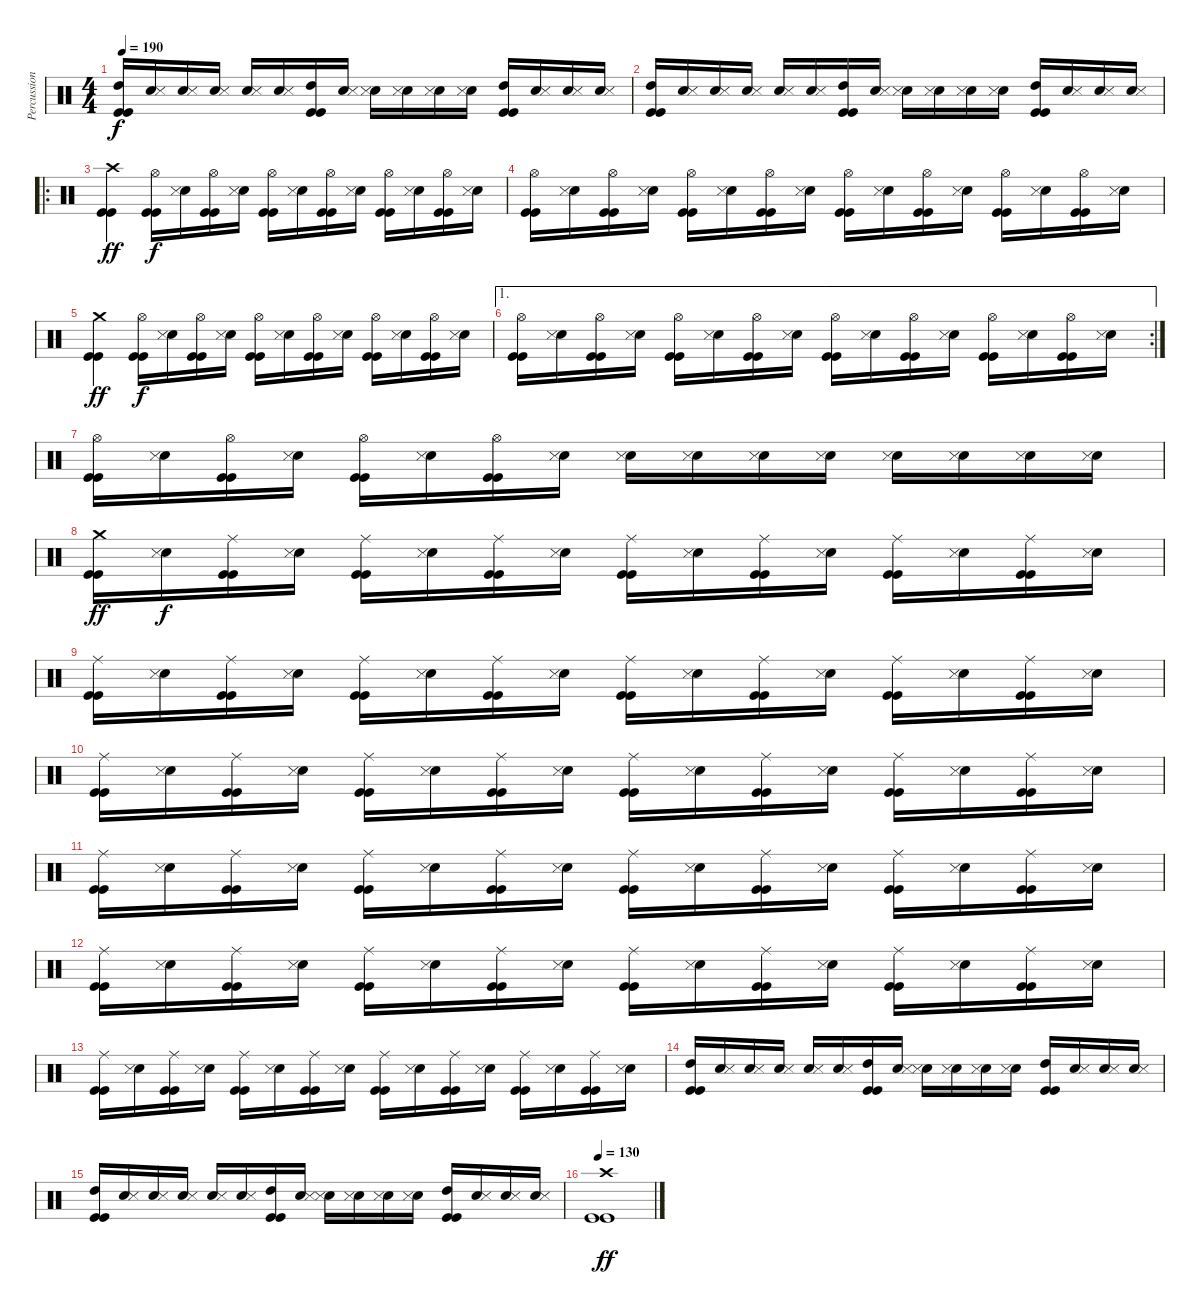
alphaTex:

\track ("Percussion" "Percussion") {instrument percussion}
\staff {score}
\articulation defaults
\ts (4 4)
\tempo 190
\clef neutral
\ks c
("High Tom (hit)" "Kick (hit)" "Kick (hit)").16{dy f} ("Snare (hit) 2" "Snare (side stick) 3").16 ("Snare (hit) 2" "Snare (side stick) 3").16 ("Snare (hit) 2" "Snare (side stick) 3").16 ("Snare (hit) 2" "Snare (side stick) 3").16 ("Snare (hit) 2" "Snare (side stick) 3").16 ("High Tom (hit)" "Kick (hit)" "Kick (hit)").16 ("Snare (hit) 2" "Snare (side stick) 3").16 ("Snare (hit) 2" "Snare (side stick) 3").16 ("Snare (hit) 2" "Snare (side stick) 3").16 ("Snare (hit) 2" "Snare (side stick) 3").16 ("Snare (hit) 2" "Snare (side stick) 3").16 ("High Tom (hit)" "Kick (hit)" "Kick (hit)").16 ("Snare (hit) 2" "Snare (side stick) 3").16 ("Snare (hit) 2" "Snare (side stick) 3").16 ("Snare (hit) 2" "Snare (side stick) 3").16 |
("High Tom (hit)" "Kick (hit)" "Kick (hit)").16 ("Snare (hit) 2" "Snare (side stick) 3").16 ("Snare (hit) 2" "Snare (side stick) 3").16 ("Snare (hit) 2" "Snare (side stick) 3").16 ("Snare (hit) 2" "Snare (side stick) 3").16 ("Snare (hit) 2" "Snare (side stick) 3").16 ("High Tom (hit)" "Kick (hit)" "Kick (hit)").16 ("Snare (hit) 2" "Snare (side stick) 3").16 ("Snare (hit) 2" "Snare (side stick) 3").16 ("Snare (hit) 2" "Snare (side stick) 3").16 ("Snare (hit) 2" "Snare (side stick) 3").16 ("Snare (hit) 2" "Snare (side stick) 3").16 ("High Tom (hit)" "Kick (hit)" "Kick (hit)").16 ("Snare (hit) 2" "Snare (side stick) 3").16 ("Snare (hit) 2" "Snare (side stick) 3").16 ("Snare (hit) 2" "Snare (side stick) 3").16 |
\ro
("Crash high (hit)" "Kick (hit)" "Kick (hit)").4{dy ff} ("Hi-Hat (open)" "Kick (hit)" "Kick (hit)").16{dy f} ("Snare (hit) 2" "Snare (side stick) 3").16 ("Hi-Hat (open)" "Kick (hit)" "Kick (hit)").16 ("Snare (hit) 2" "Snare (side stick) 3").16 ("Hi-Hat (open)" "Kick (hit)" "Kick (hit)").16 ("Snare (hit) 2" "Snare (side stick) 3").16 ("Hi-Hat (open)" "Kick (hit)" "Kick (hit)").16 ("Snare (hit) 2" "Snare (side stick) 3").16 ("Hi-Hat (open)" "Kick (hit)" "Kick (hit)").16 ("Snare (hit) 2" "Snare (side stick) 3").16 ("Hi-Hat (open)" "Kick (hit)" "Kick (hit)").16 ("Snare (hit) 2" "Snare (side stick) 3").16 |
("Hi-Hat (open)" "Kick (hit)" "Kick (hit)").16 ("Snare (hit) 2" "Snare (side stick) 3").16 ("Hi-Hat (open)" "Kick (hit)" "Kick (hit)").16 ("Snare (hit) 2" "Snare (side stick) 3").16 ("Hi-Hat (open)" "Kick (hit)" "Kick (hit)").16 ("Snare (hit) 2" "Snare (side stick) 3").16 ("Hi-Hat (open)" "Kick (hit)" "Kick (hit)").16 ("Snare (hit) 2" "Snare (side stick) 3").16 ("Hi-Hat (open)" "Kick (hit)" "Kick (hit)").16 ("Snare (hit) 2" "Snare (side stick) 3").16 ("Hi-Hat (open)" "Kick (hit)" "Kick (hit)").16 ("Snare (hit) 2" "Snare (side stick) 3").16 ("Hi-Hat (open)" "Kick (hit)" "Kick (hit)").16 ("Snare (hit) 2" "Snare (side stick) 3").16 ("Hi-Hat (open)" "Kick (hit)" "Kick (hit)").16 ("Snare (hit) 2" "Snare (side stick) 3").16 |
("Crash medium (hit)" "Kick (hit)" "Kick (hit)").4{dy ff} ("Hi-Hat (open)" "Kick (hit)" "Kick (hit)").16{dy f} ("Snare (hit) 2" "Snare (side stick) 3").16 ("Hi-Hat (open)" "Kick (hit)" "Kick (hit)").16 ("Snare (hit) 2" "Snare (side stick) 3").16 ("Hi-Hat (open)" "Kick (hit)" "Kick (hit)").16 ("Snare (hit) 2" "Snare (side stick) 3").16 ("Hi-Hat (open)" "Kick (hit)" "Kick (hit)").16 ("Snare (hit) 2" "Snare (side stick) 3").16 ("Hi-Hat (open)" "Kick (hit)" "Kick (hit)").16 ("Snare (hit) 2" "Snare (side stick) 3").16 ("Hi-Hat (open)" "Kick (hit)" "Kick (hit)").16 ("Snare (hit) 2" "Snare (side stick) 3").16 |
\ae 1
\rc 2
("Hi-Hat (open)" "Kick (hit)" "Kick (hit)").16 ("Snare (hit) 2" "Snare (side stick) 3").16 ("Hi-Hat (open)" "Kick (hit)" "Kick (hit)").16 ("Snare (hit) 2" "Snare (side stick) 3").16 ("Hi-Hat (open)" "Kick (hit)" "Kick (hit)").16 ("Snare (hit) 2" "Snare (side stick) 3").16 ("Hi-Hat (open)" "Kick (hit)" "Kick (hit)").16 ("Snare (hit) 2" "Snare (side stick) 3").16 ("Hi-Hat (open)" "Kick (hit)" "Kick (hit)").16 ("Snare (hit) 2" "Snare (side stick) 3").16 ("Hi-Hat (open)" "Kick (hit)" "Kick (hit)").16 ("Snare (hit) 2" "Snare (side stick) 3").16 ("Hi-Hat (open)" "Kick (hit)" "Kick (hit)").16 ("Snare (hit) 2" "Snare (side stick) 3").16 ("Hi-Hat (open)" "Kick (hit)" "Kick (hit)").16 ("Snare (hit) 2" "Snare (side stick) 3").16 |
("Hi-Hat (open)" "Kick (hit)" "Kick (hit)").16 ("Snare (hit) 2" "Snare (side stick) 3").16 ("Hi-Hat (open)" "Kick (hit)" "Kick (hit)").16 ("Snare (hit) 2" "Snare (side stick) 3").16 ("Hi-Hat (open)" "Kick (hit)" "Kick (hit)").16 ("Snare (hit) 2" "Snare (side stick) 3").16 ("Hi-Hat (open)" "Kick (hit)" "Kick (hit)").16 ("Snare (hit) 2" "Snare (side stick) 3").16 ("Snare (hit) 2" "Snare (side stick) 3").16 ("Snare (hit) 2" "Snare (side stick) 3").16 ("Snare (hit) 2" "Snare (side stick) 3").16 ("Snare (hit) 2" "Snare (side stick) 3").16 ("Snare (hit) 2" "Snare (side stick) 3").16 ("Snare (hit) 2" "Snare (side stick) 3").16 ("Snare (hit) 2" "Snare (side stick) 3").16 ("Snare (hit) 2" "Snare (side stick) 3").16 |
("Crash medium (hit)" "Kick (hit)" "Kick (hit)").16{dy ff} ("Snare (hit) 2" "Snare (side stick) 3").16{dy f} ("Ride (middle)" "Kick (hit)" "Kick (hit)").16 ("Snare (hit) 2" "Snare (side stick) 3").16 ("Ride (middle)" "Kick (hit)" "Kick (hit)").16 ("Snare (hit) 2" "Snare (side stick) 3").16 ("Ride (middle)" "Kick (hit)" "Kick (hit)").16 ("Snare (hit) 2" "Snare (side stick) 3").16 ("Ride (middle)" "Kick (hit)" "Kick (hit)").16 ("Snare (hit) 2" "Snare (side stick) 3").16 ("Ride (middle)" "Kick (hit)" "Kick (hit)").16 ("Snare (hit) 2" "Snare (side stick) 3").16 ("Ride (middle)" "Kick (hit)" "Kick (hit)").16 ("Snare (hit) 2" "Snare (side stick) 3").16 ("Ride (middle)" "Kick (hit)" "Kick (hit)").16 ("Snare (hit) 2" "Snare (side stick) 3").16 |
("Ride (middle)" "Kick (hit)" "Kick (hit)").16 ("Snare (hit) 2" "Snare (side stick) 3").16 ("Ride (middle)" "Kick (hit)" "Kick (hit)").16 ("Snare (hit) 2" "Snare (side stick) 3").16 ("Ride (middle)" "Kick (hit)" "Kick (hit)").16 ("Snare (hit) 2" "Snare (side stick) 3").16 ("Ride (middle)" "Kick (hit)" "Kick (hit)").16 ("Snare (hit) 2" "Snare (side stick) 3").16 ("Ride (middle)" "Kick (hit)" "Kick (hit)").16 ("Snare (hit) 2" "Snare (side stick) 3").16 ("Ride (middle)" "Kick (hit)" "Kick (hit)").16 ("Snare (hit) 2" "Snare (side stick) 3").16 ("Ride (middle)" "Kick (hit)" "Kick (hit)").16 ("Snare (hit) 2" "Snare (side stick) 3").16 ("Ride (middle)" "Kick (hit)" "Kick (hit)").16 ("Snare (hit) 2" "Snare (side stick) 3").16 |
("Ride (middle)" "Kick (hit)" "Kick (hit)").16 ("Snare (hit) 2" "Snare (side stick) 3").16 ("Ride (middle)" "Kick (hit)" "Kick (hit)").16 ("Snare (hit) 2" "Snare (side stick) 3").16 ("Ride (middle)" "Kick (hit)" "Kick (hit)").16 ("Snare (hit) 2" "Snare (side stick) 3").16 ("Ride (middle)" "Kick (hit)" "Kick (hit)").16 ("Snare (hit) 2" "Snare (side stick) 3").16 ("Ride (middle)" "Kick (hit)" "Kick (hit)").16 ("Snare (hit) 2" "Snare (side stick) 3").16 ("Ride (middle)" "Kick (hit)" "Kick (hit)").16 ("Snare (hit) 2" "Snare (side stick) 3").16 ("Ride (middle)" "Kick (hit)" "Kick (hit)").16 ("Snare (hit) 2" "Snare (side stick) 3").16 ("Ride (middle)" "Kick (hit)" "Kick (hit)").16 ("Snare (hit) 2" "Snare (side stick) 3").16 |
("Ride (middle)" "Kick (hit)" "Kick (hit)").16 ("Snare (hit) 2" "Snare (side stick) 3").16 ("Ride (middle)" "Kick (hit)" "Kick (hit)").16 ("Snare (hit) 2" "Snare (side stick) 3").16 ("Ride (middle)" "Kick (hit)" "Kick (hit)").16 ("Snare (hit) 2" "Snare (side stick) 3").16 ("Ride (middle)" "Kick (hit)" "Kick (hit)").16 ("Snare (hit) 2" "Snare (side stick) 3").16 ("Ride (middle)" "Kick (hit)" "Kick (hit)").16 ("Snare (hit) 2" "Snare (side stick) 3").16 ("Ride (middle)" "Kick (hit)" "Kick (hit)").16 ("Snare (hit) 2" "Snare (side stick) 3").16 ("Ride (middle)" "Kick (hit)" "Kick (hit)").16 ("Snare (hit) 2" "Snare (side stick) 3").16 ("Ride (middle)" "Kick (hit)" "Kick (hit)").16 ("Snare (hit) 2" "Snare (side stick) 3").16 |
("Ride (middle)" "Kick (hit)" "Kick (hit)").16 ("Snare (hit) 2" "Snare (side stick) 3").16 ("Ride (middle)" "Kick (hit)" "Kick (hit)").16 ("Snare (hit) 2" "Snare (side stick) 3").16 ("Ride (middle)" "Kick (hit)" "Kick (hit)").16 ("Snare (hit) 2" "Snare (side stick) 3").16 ("Ride (middle)" "Kick (hit)" "Kick (hit)").16 ("Snare (hit) 2" "Snare (side stick) 3").16 ("Ride (middle)" "Kick (hit)" "Kick (hit)").16 ("Snare (hit) 2" "Snare (side stick) 3").16 ("Ride (middle)" "Kick (hit)" "Kick (hit)").16 ("Snare (hit) 2" "Snare (side stick) 3").16 ("Ride (middle)" "Kick (hit)" "Kick (hit)").16 ("Snare (hit) 2" "Snare (side stick) 3").16 ("Ride (middle)" "Kick (hit)" "Kick (hit)").16 ("Snare (hit) 2" "Snare (side stick) 3").16 |
("Ride (middle)" "Kick (hit)" "Kick (hit)").16 ("Snare (hit) 2" "Snare (side stick) 3").16 ("Ride (middle)" "Kick (hit)" "Kick (hit)").16 ("Snare (hit) 2" "Snare (side stick) 3").16 ("Ride (middle)" "Kick (hit)" "Kick (hit)").16 ("Snare (hit) 2" "Snare (side stick) 3").16 ("Ride (middle)" "Kick (hit)" "Kick (hit)").16 ("Snare (hit) 2" "Snare (side stick) 3").16 ("Ride (middle)" "Kick (hit)" "Kick (hit)").16 ("Snare (hit) 2" "Snare (side stick) 3").16 ("Ride (middle)" "Kick (hit)" "Kick (hit)").16 ("Snare (hit) 2" "Snare (side stick) 3").16 ("Ride (middle)" "Kick (hit)" "Kick (hit)").16 ("Snare (hit) 2" "Snare (side stick) 3").16 ("Ride (middle)" "Kick (hit)" "Kick (hit)").16 ("Snare (hit) 2" "Snare (side stick) 3").16 |
("High Tom (hit)" "Kick (hit)" "Kick (hit)").16 ("Snare (hit) 2" "Snare (side stick) 3").16 ("Snare (hit) 2" "Snare (side stick) 3").16 ("Snare (hit) 2" "Snare (side stick) 3").16 ("Snare (hit) 2" "Snare (side stick) 3").16 ("Snare (hit) 2" "Snare (side stick) 3").16 ("High Tom (hit)" "Kick (hit)" "Kick (hit)").16 ("Snare (hit) 2" "Snare (side stick) 3").16 ("Snare (hit) 2" "Snare (side stick) 3").16 ("Snare (hit) 2" "Snare (side stick) 3").16 ("Snare (hit) 2" "Snare (side stick) 3").16 ("Snare (hit) 2" "Snare (side stick) 3").16 ("High Tom (hit)" "Kick (hit)" "Kick (hit)").16 ("Snare (hit) 2" "Snare (side stick) 3").16 ("Snare (hit) 2" "Snare (side stick) 3").16 ("Snare (hit) 2" "Snare (side stick) 3").16 |
("High Tom (hit)" "Kick (hit)" "Kick (hit)").16 ("Snare (hit) 2" "Snare (side stick) 3").16 ("Snare (hit) 2" "Snare (side stick) 3").16 ("Snare (hit) 2" "Snare (side stick) 3").16 ("Snare (hit) 2" "Snare (side stick) 3").16 ("Snare (hit) 2" "Snare (side stick) 3").16 ("High Tom (hit)" "Kick (hit)" "Kick (hit)").16 ("Snare (hit) 2" "Snare (side stick) 3").16 ("Snare (hit) 2" "Snare (side stick) 3").16 ("Snare (hit) 2" "Snare (side stick) 3").16 ("Snare (hit) 2" "Snare (side stick) 3").16 ("Snare (hit) 2" "Snare (side stick) 3").16 ("High Tom (hit)" "Kick (hit)" "Kick (hit)").16 ("Snare (hit) 2" "Snare (side stick) 3").16 ("Snare (hit) 2" "Snare (side stick) 3").16 ("Snare (hit) 2" "Snare (side stick) 3").16 |
\tempo 130
("Crash high (hit)" "Kick (hit)" "Kick (hit)").1{dy ff}
